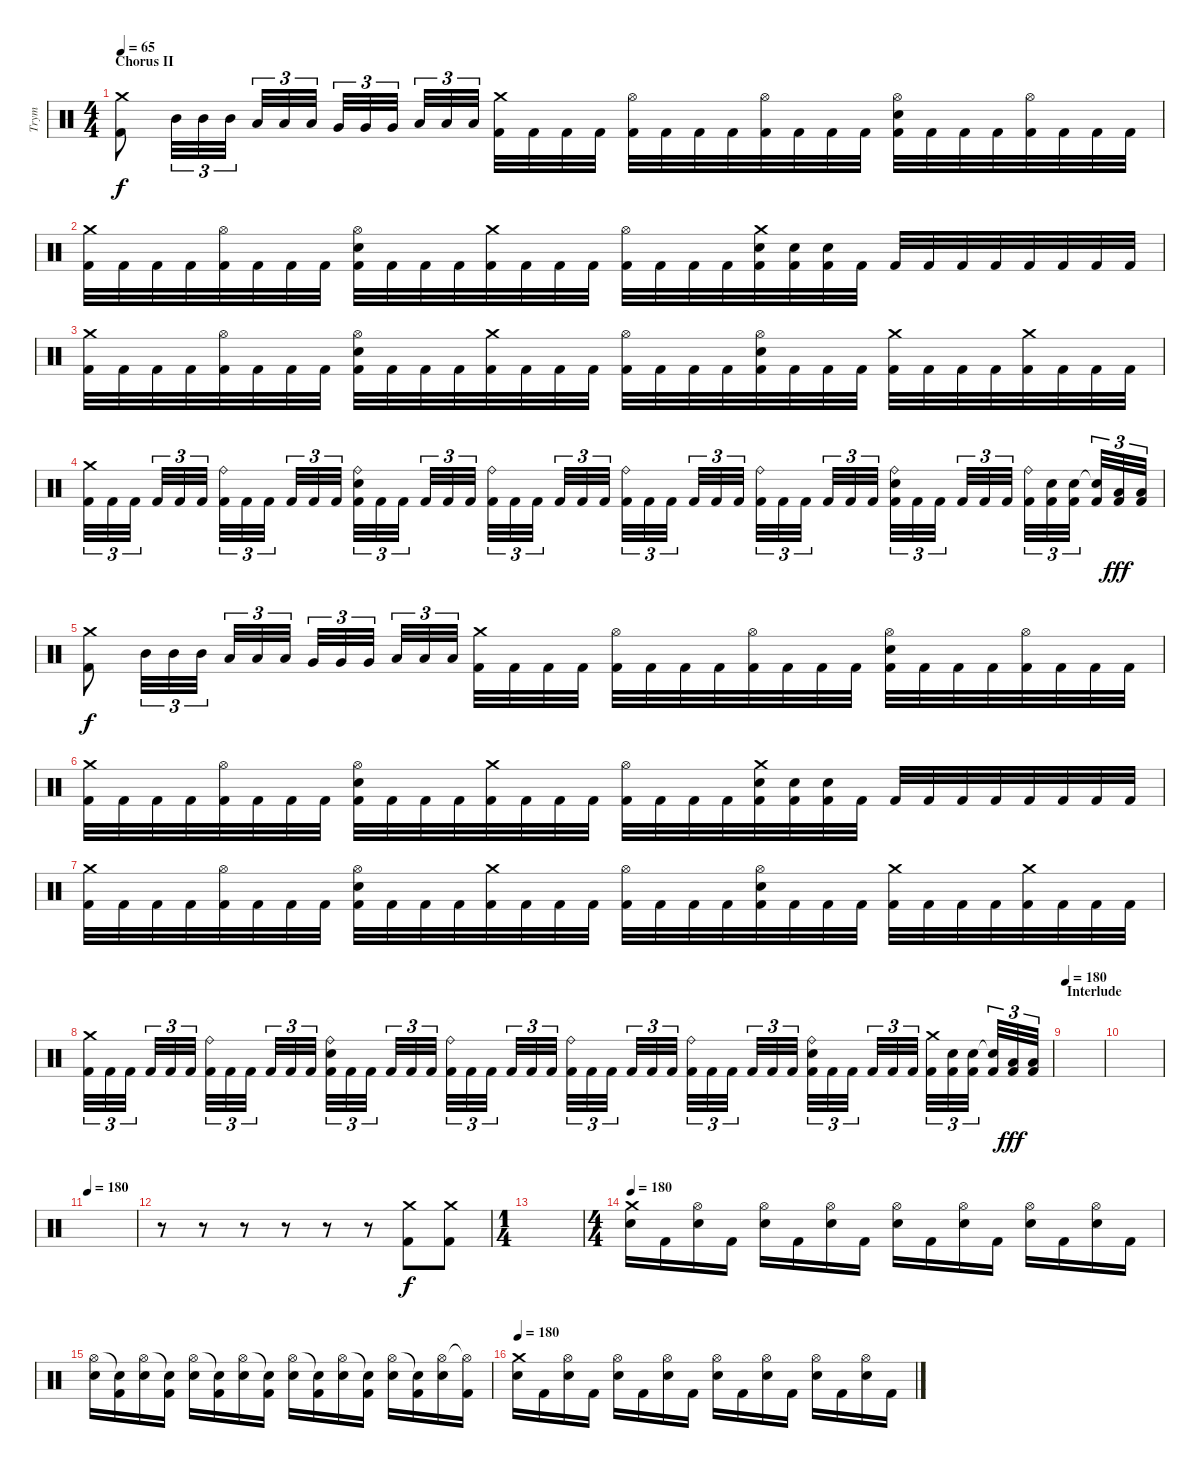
\track ("Trym" "Trym") {instrument percussion}
\staff {score}
\articulation defaults
\ts (4 4)
\section ("" "Chorus II")
\tempo 65
\clef neutral
\ks c
("Crash medium (hit)" "Kick (hit) 2").8{dy f} "Mid Tom (hit)".32{tu (3 2)} "Mid Tom (hit)".32{tu (3 2)} "Mid Tom (hit)".32{tu (3 2)} "Low Tom (hit)".32{tu (3 2)} "Low Tom (hit)".32{tu (3 2)} "Low Tom (hit)".32{tu (3 2)} "Very Low Tom (hit)".32{tu (3 2)} "Very Low Tom (hit)".32{tu (3 2)} "Very Low Tom (hit)".32{tu (3 2)} "Low Floor Tom (hit)".32{tu (3 2)} "Low Floor Tom (hit)".32{tu (3 2)} "Low Floor Tom (hit)".32{tu (3 2)} ("Crash medium (hit)" "Kick (hit) 2").32 "Kick (hit) 2".32 "Kick (hit) 2".32 "Kick (hit) 2".32 ("Hi-Hat (open)" "Kick (hit) 2").32 "Kick (hit) 2".32 "Kick (hit) 2".32 "Kick (hit) 2".32 ("Hi-Hat (open)" "Kick (hit) 2").32 "Kick (hit) 2".32 "Kick (hit) 2".32 "Kick (hit) 2".32 ("Hi-Hat (open)" "Electric Snare (hit)" "Kick (hit) 2").32 "Kick (hit) 2".32 "Kick (hit) 2".32 "Kick (hit) 2".32 ("Hi-Hat (open)" "Kick (hit) 2").32 "Kick (hit) 2".32 "Kick (hit) 2".32 "Kick (hit) 2".32 |
("Crash medium (hit)" "Kick (hit) 2").32 "Kick (hit) 2".32 "Kick (hit) 2".32 "Kick (hit) 2".32 ("Hi-Hat (open)" "Kick (hit) 2").32 "Kick (hit) 2".32 "Kick (hit) 2".32 "Kick (hit) 2".32 ("Hi-Hat (open)" "Electric Snare (hit)" "Kick (hit) 2").32 "Kick (hit) 2".32 "Kick (hit) 2".32 "Kick (hit) 2".32 ("Crash medium (hit)" "Kick (hit) 2").32 "Kick (hit) 2".32 "Kick (hit) 2".32 "Kick (hit) 2".32 ("Hi-Hat (open)" "Kick (hit) 2").32 "Kick (hit) 2".32 "Kick (hit) 2".32 "Kick (hit) 2".32 ("Crash medium (hit)" "Electric Snare (hit)" "Kick (hit) 2").32 ("Electric Snare (hit)" "Kick (hit) 2").32 ("Electric Snare (hit)" "Kick (hit) 2").32 "Kick (hit) 2".32 "Kick (hit) 2".32 "Kick (hit) 2".32 "Kick (hit) 2".32 "Kick (hit) 2".32 "Kick (hit) 2".32 "Kick (hit) 2".32 "Kick (hit) 2".32 "Kick (hit) 2".32 |
("Crash medium (hit)" "Kick (hit) 2").32 "Kick (hit) 2".32 "Kick (hit) 2".32 "Kick (hit) 2".32 ("Hi-Hat (open)" "Kick (hit) 2").32 "Kick (hit) 2".32 "Kick (hit) 2".32 "Kick (hit) 2".32 ("Hi-Hat (open)" "Electric Snare (hit)" "Kick (hit) 2").32 "Kick (hit) 2".32 "Kick (hit) 2".32 "Kick (hit) 2".32 ("Crash medium (hit)" "Kick (hit) 2").32 "Kick (hit) 2".32 "Kick (hit) 2".32 "Kick (hit) 2".32 ("Hi-Hat (open)" "Kick (hit) 2").32 "Kick (hit) 2".32 "Kick (hit) 2".32 "Kick (hit) 2".32 ("Hi-Hat (open)" "Electric Snare (hit)" "Kick (hit) 2").32 "Kick (hit) 2".32 "Kick (hit) 2".32 "Kick (hit) 2".32 ("Crash medium (hit)" "Kick (hit) 2").32 "Kick (hit) 2".32 "Kick (hit) 2".32 "Kick (hit) 2".32 ("Crash medium (hit)" "Kick (hit) 2").32 "Kick (hit) 2".32 "Kick (hit) 2".32 "Kick (hit) 2".32 |
("Crash medium (hit)" "Kick (hit) 2").32{tu (3 2)} "Kick (hit) 2".32{tu (3 2)} "Kick (hit) 2".32{tu (3 2)} "Kick (hit) 2".32{tu (3 2)} "Kick (hit) 2".32{tu (3 2)} "Kick (hit) 2".32{tu (3 2)} ("Ride (bell)" "Kick (hit) 2").32{tu (3 2)} "Kick (hit) 2".32{tu (3 2)} "Kick (hit) 2".32{tu (3 2)} "Kick (hit) 2".32{tu (3 2)} "Kick (hit) 2".32{tu (3 2)} "Kick (hit) 2".32{tu (3 2)} ("Ride (bell)" "Electric Snare (hit)" "Kick (hit) 2").32{tu (3 2)} "Kick (hit) 2".32{tu (3 2)} "Kick (hit) 2".32{tu (3 2)} "Kick (hit) 2".32{tu (3 2)} "Kick (hit) 2".32{tu (3 2)} "Kick (hit) 2".32{tu (3 2)} ("Ride (bell)" "Kick (hit) 2").32{tu (3 2)} "Kick (hit) 2".32{tu (3 2)} "Kick (hit) 2".32{tu (3 2)} "Kick (hit) 2".32{tu (3 2)} "Kick (hit) 2".32{tu (3 2)} "Kick (hit) 2".32{tu (3 2)} ("Ride (bell)" "Kick (hit) 2").32{tu (3 2)} "Kick (hit) 2".32{tu (3 2)} "Kick (hit) 2".32{tu (3 2)} "Kick (hit) 2".32{tu (3 2)} "Kick (hit) 2".32{tu (3 2)} "Kick (hit) 2".32{tu (3 2)} ("Ride (bell)" "Kick (hit) 2").32{tu (3 2)} "Kick (hit) 2".32{tu (3 2)} "Kick (hit) 2".32{tu (3 2)} "Kick (hit) 2".32{tu (3 2)} "Kick (hit) 2".32{tu (3 2)} "Kick (hit) 2".32{tu (3 2)} ("Ride (bell)" "Electric Snare (hit)" "Kick (hit) 2").32{tu (3 2)} "Kick (hit) 2".32{tu (3 2)} "Kick (hit) 2".32{tu (3 2)} "Kick (hit) 2".32{tu (3 2)} "Kick (hit) 2".32{tu (3 2)} "Kick (hit) 2".32{tu (3 2)} ("Ride (bell)" "Kick (hit) 2").32{tu (3 2)} ("Electric Snare (hit)" "Kick (hit) 2").32{tu (3 2)} ("Electric Snare (hit)" "Kick (hit) 2").32{tu (3 2)} ("Electric Snare (hit)"{t} "Kick (hit) 2").32{tu (3 2)} ("Low Tom (hit)" "Kick (hit) 2").32{tu (3 2) dy fff} ("Low Tom (hit)" "Kick (hit) 2").32{tu (3 2)} |
("Crash medium (hit)" "Kick (hit) 2").8{dy f} "Mid Tom (hit)".32{tu (3 2)} "Mid Tom (hit)".32{tu (3 2)} "Mid Tom (hit)".32{tu (3 2)} "Low Tom (hit)".32{tu (3 2)} "Low Tom (hit)".32{tu (3 2)} "Low Tom (hit)".32{tu (3 2)} "Very Low Tom (hit)".32{tu (3 2)} "Very Low Tom (hit)".32{tu (3 2)} "Very Low Tom (hit)".32{tu (3 2)} "Low Floor Tom (hit)".32{tu (3 2)} "Low Floor Tom (hit)".32{tu (3 2)} "Low Floor Tom (hit)".32{tu (3 2)} ("Crash medium (hit)" "Kick (hit) 2").32 "Kick (hit) 2".32 "Kick (hit) 2".32 "Kick (hit) 2".32 ("Hi-Hat (open)" "Kick (hit) 2").32 "Kick (hit) 2".32 "Kick (hit) 2".32 "Kick (hit) 2".32 ("Hi-Hat (open)" "Kick (hit) 2").32 "Kick (hit) 2".32 "Kick (hit) 2".32 "Kick (hit) 2".32 ("Hi-Hat (open)" "Electric Snare (hit)" "Kick (hit) 2").32 "Kick (hit) 2".32 "Kick (hit) 2".32 "Kick (hit) 2".32 ("Hi-Hat (open)" "Kick (hit) 2").32 "Kick (hit) 2".32 "Kick (hit) 2".32 "Kick (hit) 2".32 |
("Crash medium (hit)" "Kick (hit) 2").32 "Kick (hit) 2".32 "Kick (hit) 2".32 "Kick (hit) 2".32 ("Hi-Hat (open)" "Kick (hit) 2").32 "Kick (hit) 2".32 "Kick (hit) 2".32 "Kick (hit) 2".32 ("Hi-Hat (open)" "Electric Snare (hit)" "Kick (hit) 2").32 "Kick (hit) 2".32 "Kick (hit) 2".32 "Kick (hit) 2".32 ("Crash medium (hit)" "Kick (hit) 2").32 "Kick (hit) 2".32 "Kick (hit) 2".32 "Kick (hit) 2".32 ("Hi-Hat (open)" "Kick (hit) 2").32 "Kick (hit) 2".32 "Kick (hit) 2".32 "Kick (hit) 2".32 ("Crash medium (hit)" "Electric Snare (hit)" "Kick (hit) 2").32 ("Electric Snare (hit)" "Kick (hit) 2").32 ("Electric Snare (hit)" "Kick (hit) 2").32 "Kick (hit) 2".32 "Kick (hit) 2".32 "Kick (hit) 2".32 "Kick (hit) 2".32 "Kick (hit) 2".32 "Kick (hit) 2".32 "Kick (hit) 2".32 "Kick (hit) 2".32 "Kick (hit) 2".32 |
("Crash medium (hit)" "Kick (hit) 2").32 "Kick (hit) 2".32 "Kick (hit) 2".32 "Kick (hit) 2".32 ("Hi-Hat (open)" "Kick (hit) 2").32 "Kick (hit) 2".32 "Kick (hit) 2".32 "Kick (hit) 2".32 ("Hi-Hat (open)" "Electric Snare (hit)" "Kick (hit) 2").32 "Kick (hit) 2".32 "Kick (hit) 2".32 "Kick (hit) 2".32 ("Crash medium (hit)" "Kick (hit) 2").32 "Kick (hit) 2".32 "Kick (hit) 2".32 "Kick (hit) 2".32 ("Hi-Hat (open)" "Kick (hit) 2").32 "Kick (hit) 2".32 "Kick (hit) 2".32 "Kick (hit) 2".32 ("Hi-Hat (open)" "Electric Snare (hit)" "Kick (hit) 2").32 "Kick (hit) 2".32 "Kick (hit) 2".32 "Kick (hit) 2".32 ("Crash medium (hit)" "Kick (hit) 2").32 "Kick (hit) 2".32 "Kick (hit) 2".32 "Kick (hit) 2".32 ("Crash medium (hit)" "Kick (hit) 2").32 "Kick (hit) 2".32 "Kick (hit) 2".32 "Kick (hit) 2".32 |
("Crash medium (hit)" "Kick (hit) 2").32{tu (3 2)} "Kick (hit) 2".32{tu (3 2)} "Kick (hit) 2".32{tu (3 2)} "Kick (hit) 2".32{tu (3 2)} "Kick (hit) 2".32{tu (3 2)} "Kick (hit) 2".32{tu (3 2)} ("Ride (bell)" "Kick (hit) 2").32{tu (3 2)} "Kick (hit) 2".32{tu (3 2)} "Kick (hit) 2".32{tu (3 2)} "Kick (hit) 2".32{tu (3 2)} "Kick (hit) 2".32{tu (3 2)} "Kick (hit) 2".32{tu (3 2)} ("Ride (bell)" "Electric Snare (hit)" "Kick (hit) 2").32{tu (3 2)} "Kick (hit) 2".32{tu (3 2)} "Kick (hit) 2".32{tu (3 2)} "Kick (hit) 2".32{tu (3 2)} "Kick (hit) 2".32{tu (3 2)} "Kick (hit) 2".32{tu (3 2)} ("Ride (bell)" "Kick (hit) 2").32{tu (3 2)} "Kick (hit) 2".32{tu (3 2)} "Kick (hit) 2".32{tu (3 2)} "Kick (hit) 2".32{tu (3 2)} "Kick (hit) 2".32{tu (3 2)} "Kick (hit) 2".32{tu (3 2)} ("Ride (bell)" "Kick (hit) 2").32{tu (3 2)} "Kick (hit) 2".32{tu (3 2)} "Kick (hit) 2".32{tu (3 2)} "Kick (hit) 2".32{tu (3 2)} "Kick (hit) 2".32{tu (3 2)} "Kick (hit) 2".32{tu (3 2)} ("Ride (bell)" "Kick (hit) 2").32{tu (3 2)} "Kick (hit) 2".32{tu (3 2)} "Kick (hit) 2".32{tu (3 2)} "Kick (hit) 2".32{tu (3 2)} "Kick (hit) 2".32{tu (3 2)} "Kick (hit) 2".32{tu (3 2)} ("Ride (bell)" "Electric Snare (hit)" "Kick (hit) 2").32{tu (3 2)} "Kick (hit) 2".32{tu (3 2)} "Kick (hit) 2".32{tu (3 2)} "Kick (hit) 2".32{tu (3 2)} "Kick (hit) 2".32{tu (3 2)} "Kick (hit) 2".32{tu (3 2)} ("Crash medium (hit)" "Kick (hit) 2").32{tu (3 2)} ("Electric Snare (hit)" "Kick (hit) 2").32{tu (3 2)} ("Electric Snare (hit)" "Kick (hit) 2").32{tu (3 2)} ("Electric Snare (hit)"{t} "Kick (hit) 2").32{tu (3 2)} ("Low Tom (hit)" "Kick (hit) 2").32{tu (3 2) dy fff} ("Low Tom (hit)" "Kick (hit) 2").32{tu (3 2)} |
\section ("" "Interlude")
\tempo 180
|
|
\tempo 180
|
r.8 r.8 r.8 r.8 r.8 r.8 ("Crash medium (hit)" "Kick (hit) 2").8{dy f} ("Crash medium (hit)" "Kick (hit) 2").8 |
\ts (1 4)
|
\ts (4 4)
\tempo 180
("Crash medium (hit)" "Electric Snare (hit)").16 "Kick (hit) 2".16 ("Hi-Hat (open)" "Electric Snare (hit)").16 "Kick (hit) 2".16 ("Hi-Hat (open)" "Electric Snare (hit)").16 "Kick (hit) 2".16 ("Hi-Hat (open)" "Electric Snare (hit)").16 "Kick (hit) 2".16 ("Hi-Hat (open)" "Electric Snare (hit)").16 "Kick (hit) 2".16 ("Hi-Hat (open)" "Electric Snare (hit)").16 "Kick (hit) 2".16 ("Hi-Hat (open)" "Electric Snare (hit)").16 "Kick (hit) 2".16 ("Hi-Hat (open)" "Electric Snare (hit)").16 "Kick (hit) 2".16 |
("Hi-Hat (open)" "Electric Snare (hit)").16 ("Snare (hit)"{t} "Kick (hit) 2").16 ("Hi-Hat (open)" "Electric Snare (hit)").16 ("Snare (hit)"{t} "Kick (hit) 2").16 ("Hi-Hat (open)" "Electric Snare (hit)").16 ("Snare (hit)"{t} "Kick (hit) 2").16 ("Hi-Hat (open)" "Electric Snare (hit)").16 ("Snare (hit)"{t} "Kick (hit) 2").16 ("Hi-Hat (open)" "Electric Snare (hit)").16 ("Snare (hit)"{t} "Kick (hit) 2").16 ("Hi-Hat (open)" "Electric Snare (hit)").16 ("Snare (hit)"{t} "Kick (hit) 2").16 ("Hi-Hat (open)" "Electric Snare (hit)").16 ("Snare (hit)"{t} "Kick (hit) 2").16 ("Hi-Hat (open)" "Electric Snare (hit)").16 ("Hi-Hat (open)"{t} "Kick (hit) 2").16 |
\tempo 180
("Crash medium (hit)" "Electric Snare (hit)").16 "Kick (hit) 2".16 ("Hi-Hat (open)" "Electric Snare (hit)").16 "Kick (hit) 2".16 ("Hi-Hat (open)" "Electric Snare (hit)").16 "Kick (hit) 2".16 ("Hi-Hat (open)" "Electric Snare (hit)").16 "Kick (hit) 2".16 ("Hi-Hat (open)" "Electric Snare (hit)").16 "Kick (hit) 2".16 ("Hi-Hat (open)" "Electric Snare (hit)").16 "Kick (hit) 2".16 ("Hi-Hat (open)" "Electric Snare (hit)").16 "Kick (hit) 2".16 ("Hi-Hat (open)" "Electric Snare (hit)").16 "Kick (hit) 2".16
